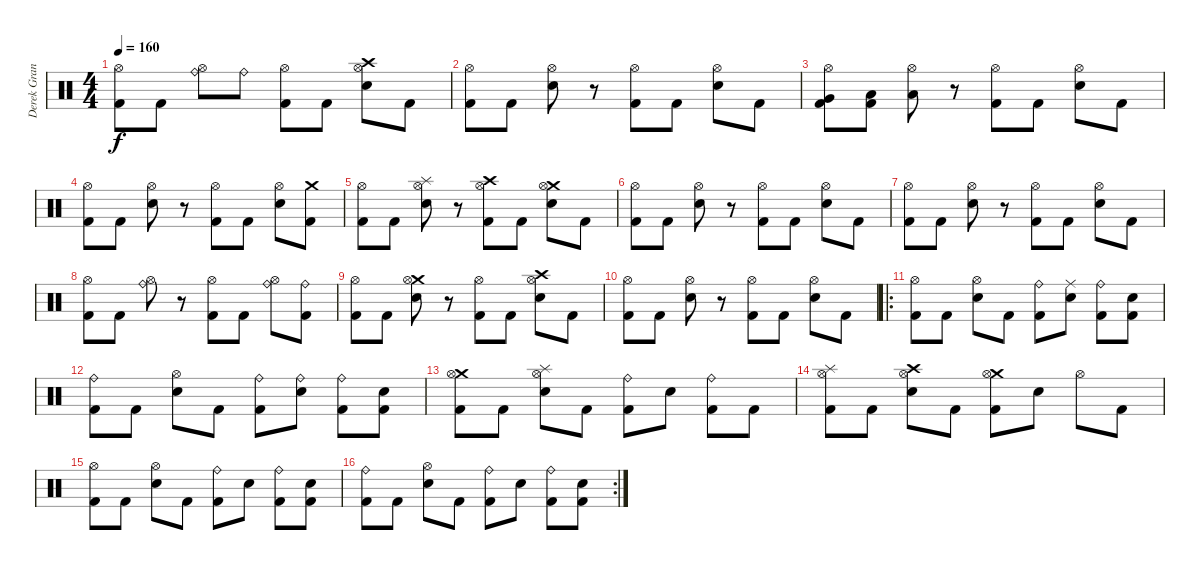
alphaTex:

\track ("Derek Grant" "Derek Gran") {instrument percussion}
\staff {score}
\articulation defaults
\ts (4 4)
\tempo 160
\clef neutral
\ks c
("Hi-Hat (open)" "Kick (hit) 2").8{dy f} "Kick (hit) 2".8 ("Hi-Hat (open)" "Ride (bell)").8 "Ride (bell)".8 ("Hi-Hat (open)" "Kick (hit) 2").8 "Kick (hit) 2".8 ("Crash high (hit)" "Hi-Hat (open)" "Snare (hit) 2").8 "Kick (hit) 2".8 |
("Hi-Hat (open)" "Kick (hit) 2").8 "Kick (hit) 2".8 ("Hi-Hat (open)" "Snare (hit) 2").8 r.8 ("Hi-Hat (open)" "Kick (hit) 2").8 "Kick (hit) 2".8 ("Hi-Hat (open)" "Snare (hit) 2").8 "Kick (hit) 2".8 |
("Hi-Hat (open)" "Very Low Tom (hit)" "Kick (hit) 2").8 ("Low Tom (hit)" "Kick (hit) 2").8 ("Hi-Hat (open)" "Low Floor Tom (hit)").8 r.8 ("Hi-Hat (open)" "Kick (hit) 2").8 "Kick (hit) 2".8 ("Hi-Hat (open)" "Snare (hit) 2").8 "Kick (hit) 2".8 |
("Hi-Hat (open)" "Kick (hit) 2").8 "Kick (hit) 2".8 ("Hi-Hat (open)" "Snare (hit) 2").8 r.8 ("Hi-Hat (open)" "Kick (hit) 2").8 "Kick (hit) 2".8 ("Hi-Hat (open)" "Snare (hit) 2").8 ("Crash medium (hit)" "Kick (hit) 2").8 |
("Hi-Hat (open)" "Kick (hit) 2").8 "Kick (hit) 2".8 ("Splash (hit)" "Hi-Hat (open)" "Snare (hit) 2").8 r.8 ("Crash high (hit)" "Hi-Hat (open)" "Kick (hit) 2").8 "Kick (hit) 2".8 ("Crash medium (hit)" "Hi-Hat (open)" "Snare (hit) 2").8 "Kick (hit) 2".8 |
("Hi-Hat (open)" "Kick (hit) 2").8 "Kick (hit) 2".8 ("Hi-Hat (open)" "Snare (hit) 2").8 r.8 ("Hi-Hat (open)" "Kick (hit) 2").8 "Kick (hit) 2".8 ("Hi-Hat (open)" "Snare (hit) 2").8 "Kick (hit) 2".8 |
("Hi-Hat (open)" "Kick (hit) 2").8 "Kick (hit) 2".8 ("Hi-Hat (open)" "Snare (hit) 2").8 r.8 ("Hi-Hat (open)" "Kick (hit) 2").8 "Kick (hit) 2".8 ("Hi-Hat (open)" "Snare (hit) 2").8 "Kick (hit) 2".8 |
("Hi-Hat (open)" "Kick (hit) 2").8 "Kick (hit) 2".8 ("Hi-Hat (open)" "Ride (bell)").8 r.8 ("Hi-Hat (open)" "Kick (hit) 2").8 "Kick (hit) 2".8 ("Hi-Hat (open)" "Ride (bell)").8 ("Ride (bell)" "Kick (hit) 2").8 |
("Hi-Hat (open)" "Kick (hit) 2").8 "Kick (hit) 2".8 ("Crash medium (hit)" "Hi-Hat (open)" "Snare (hit) 2").8 r.8 ("Hi-Hat (open)" "Kick (hit) 2").8 "Kick (hit) 2".8 ("Crash high (hit)" "Hi-Hat (open)" "Snare (hit) 2").8 "Kick (hit) 2".8 |
("Hi-Hat (open)" "Kick (hit) 2").8 "Kick (hit) 2".8 ("Hi-Hat (open)" "Snare (hit) 2").8 r.8 ("Hi-Hat (open)" "Kick (hit) 2").8 "Kick (hit) 2".8 ("Hi-Hat (open)" "Snare (hit) 2").8 "Kick (hit) 2".8 |
\ro
("Hi-Hat (open)" "Kick (hit) 2").8 "Kick (hit) 2".8 ("Hi-Hat (open)" "Snare (hit) 2").8 "Kick (hit) 2".8 ("Ride (bell)" "Kick (hit) 2").8 ("Ride (middle)" "Snare (hit) 2").8 ("Ride (bell)" "Kick (hit) 2").8 ("Snare (hit) 2" "Kick (hit) 2").8 |
("Ride (bell)" "Kick (hit) 2").8 "Kick (hit) 2".8 ("Hi-Hat (open)" "Snare (hit) 2").8 "Kick (hit) 2".8 ("Ride (bell)" "Kick (hit) 2").8 ("Ride (bell)" "Snare (hit) 2").8 ("Ride (bell)" "Kick (hit) 2").8 ("Snare (hit) 2" "Kick (hit) 2").8 |
("Crash medium (hit)" "Hi-Hat (open)" "Kick (hit) 2").8 "Kick (hit) 2".8 ("Splash (hit)" "Hi-Hat (open)" "Snare (hit) 2").8 "Kick (hit) 2".8 ("Ride (bell)" "Kick (hit) 2").8 "Snare (hit) 2".8 ("Ride (bell)" "Kick (hit) 2").8 "Kick (hit) 2".8 |
("Splash (hit)" "Hi-Hat (open)" "Kick (hit) 2").8 "Kick (hit) 2".8 ("Crash high (hit)" "Hi-Hat (open)" "Snare (hit) 2").8 "Kick (hit) 2".8 ("Crash medium (hit)" "Hi-Hat (open)" "Kick (hit) 2").8 "Snare (hit) 2".8 "Hi-Hat (open)".8 "Kick (hit) 2".8 |
("Hi-Hat (open)" "Kick (hit) 2").8 "Kick (hit) 2".8 ("Hi-Hat (open)" "Snare (hit) 2").8 "Kick (hit) 2".8 ("Ride (bell)" "Kick (hit) 2").8 "Snare (hit) 2".8 ("Ride (bell)" "Kick (hit) 2").8 ("Snare (hit) 2" "Kick (hit) 2").8 |
\rc 2
("Ride (bell)" "Kick (hit) 2").8 "Kick (hit) 2".8 ("Hi-Hat (open)" "Snare (hit) 2").8 "Kick (hit) 2".8 ("Ride (bell)" "Kick (hit) 2").8 "Snare (hit) 2".8 ("Ride (bell)" "Kick (hit) 2").8 ("Snare (hit) 2" "Kick (hit) 2").8
